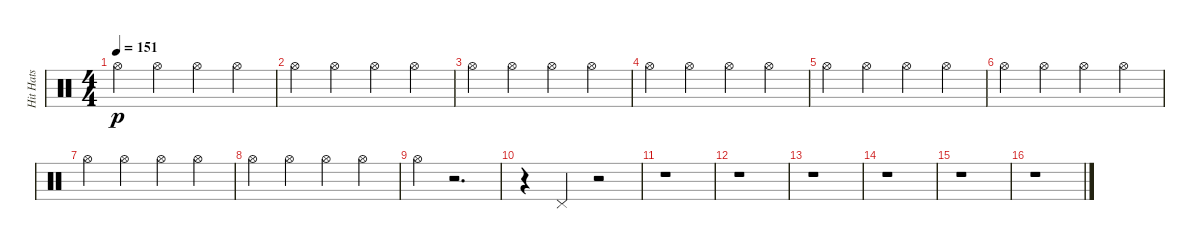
\track ("Hit Hats" "Hit Hats") {instrument percussion}
\staff {score}
\articulation defaults
\ts (4 4)
\tempo 151
\clef neutral
\ks c "Hi-Hat (open)".4{dy p} "Hi-Hat (open)".4 "Hi-Hat (open)".4 "Hi-Hat (open)".4
|
"Hi-Hat (open)".4 "Hi-Hat (open)".4 "Hi-Hat (open)".4 "Hi-Hat (open)".4 |
"Hi-Hat (open)".4 "Hi-Hat (open)".4 "Hi-Hat (open)".4 "Hi-Hat (open)".4 |
"Hi-Hat (open)".4 "Hi-Hat (open)".4 "Hi-Hat (open)".4 "Hi-Hat (open)".4 |
"Hi-Hat (open)".4 "Hi-Hat (open)".4 "Hi-Hat (open)".4 "Hi-Hat (open)".4 |
"Hi-Hat (open)".4 "Hi-Hat (open)".4 "Hi-Hat (open)".4 "Hi-Hat (open)".4 |
"Hi-Hat (open)".4 "Hi-Hat (open)".4 "Hi-Hat (open)".4 "Hi-Hat (open)".4 |
"Hi-Hat (open)".4 "Hi-Hat (open)".4 "Hi-Hat (open)".4 "Hi-Hat (open)".4 |
"Hi-Hat (open)".4 r.2{d} |
r.4 "Pedal Hi-Hat (hit)".4 r.2 |
r.1 |
r.1 |
r.1 |
r.1 |
r.1 |
r.1
